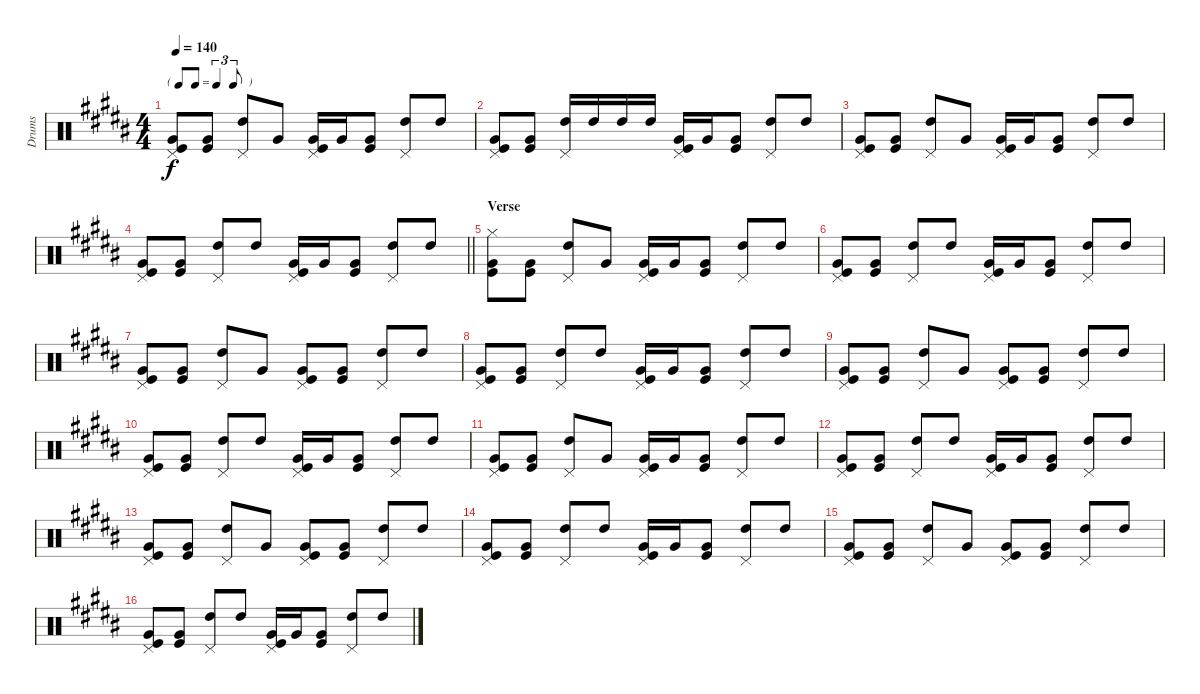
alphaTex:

\track ("Drums" "Drums") {instrument percussion}
\staff {score}
\articulation defaults
\ts (4 4)
\tf triplet8th
\tempo 140
\clef neutral
\ks b
("Kick (hit)" "Very Low Tom (hit)" "Pedal Hi-Hat (hit)").8{dy f} ("Kick (hit)" "Very Low Tom (hit)").8 ("High Tom (hit)" "Pedal Hi-Hat (hit)").8 "Very Low Tom (hit)".8 ("Very Low Tom (hit)" "Kick (hit)" "Pedal Hi-Hat (hit)").16 "Very Low Tom (hit)".16 ("Very Low Tom (hit)" "Kick (hit)").8 ("High Tom (hit)" "Pedal Hi-Hat (hit)").8 "High Tom (hit)".8 |
("Kick (hit)" "Very Low Tom (hit)" "Pedal Hi-Hat (hit)").8 ("Kick (hit)" "Very Low Tom (hit)").8 ("High Tom (hit)" "Pedal Hi-Hat (hit)").16 "High Tom (hit)".16 "High Tom (hit)".16 "High Tom (hit)".16 ("Very Low Tom (hit)" "Kick (hit)" "Pedal Hi-Hat (hit)").16 "Very Low Tom (hit)".16 ("Very Low Tom (hit)" "Kick (hit)").8 ("High Tom (hit)" "Pedal Hi-Hat (hit)").8 "High Tom (hit)".8 |
("Kick (hit)" "Very Low Tom (hit)" "Pedal Hi-Hat (hit)").8 ("Kick (hit)" "Very Low Tom (hit)").8 ("High Tom (hit)" "Pedal Hi-Hat (hit)").8 "Very Low Tom (hit)".8 ("Very Low Tom (hit)" "Kick (hit)" "Pedal Hi-Hat (hit)").16 "Very Low Tom (hit)".16 ("Very Low Tom (hit)" "Kick (hit)").8 ("High Tom (hit)" "Pedal Hi-Hat (hit)").8 "High Tom (hit)".8 |
\barLineRight lightlight
("Kick (hit)" "Very Low Tom (hit)" "Pedal Hi-Hat (hit)").8 ("Kick (hit)" "Very Low Tom (hit)").8 ("High Tom (hit)" "Pedal Hi-Hat (hit)").8 "High Tom (hit)".8 ("Very Low Tom (hit)" "Kick (hit)" "Pedal Hi-Hat (hit)").16 "Very Low Tom (hit)".16 ("Very Low Tom (hit)" "Kick (hit)").8 ("High Tom (hit)" "Pedal Hi-Hat (hit)").8 "High Tom (hit)".8 |
\section ("" "Verse")
("Kick (hit)" "Very Low Tom (hit)" "Hi-Hat (closed)").8 ("Kick (hit)" "Very Low Tom (hit)").8 ("High Tom (hit)" "Pedal Hi-Hat (hit)").8 "Very Low Tom (hit)".8 ("Very Low Tom (hit)" "Kick (hit)" "Pedal Hi-Hat (hit)").16 "Very Low Tom (hit)".16 ("Very Low Tom (hit)" "Kick (hit)").8 ("High Tom (hit)" "Pedal Hi-Hat (hit)").8 "High Tom (hit)".8 |
("Kick (hit)" "Very Low Tom (hit)" "Pedal Hi-Hat (hit)").8 ("Kick (hit)" "Very Low Tom (hit)").8 ("High Tom (hit)" "Pedal Hi-Hat (hit)").8 "High Tom (hit)".8 ("Very Low Tom (hit)" "Kick (hit)" "Pedal Hi-Hat (hit)").16 "Very Low Tom (hit)".16 ("Very Low Tom (hit)" "Kick (hit)").8 ("High Tom (hit)" "Pedal Hi-Hat (hit)").8 "High Tom (hit)".8 |
("Kick (hit)" "Very Low Tom (hit)" "Pedal Hi-Hat (hit)").8 ("Kick (hit)" "Very Low Tom (hit)").8 ("High Tom (hit)" "Pedal Hi-Hat (hit)").8 "Very Low Tom (hit)".8 ("Very Low Tom (hit)" "Kick (hit)" "Pedal Hi-Hat (hit)").8 ("Very Low Tom (hit)" "Kick (hit)").8 ("High Tom (hit)" "Pedal Hi-Hat (hit)").8 "High Tom (hit)".8 |
("Kick (hit)" "Very Low Tom (hit)" "Pedal Hi-Hat (hit)").8 ("Kick (hit)" "Very Low Tom (hit)").8 ("High Tom (hit)" "Pedal Hi-Hat (hit)").8 "High Tom (hit)".8 ("Very Low Tom (hit)" "Kick (hit)" "Pedal Hi-Hat (hit)").16 "Very Low Tom (hit)".16 ("Very Low Tom (hit)" "Kick (hit)").8 ("High Tom (hit)" "Pedal Hi-Hat (hit)").8 "High Tom (hit)".8 |
("Kick (hit)" "Very Low Tom (hit)" "Pedal Hi-Hat (hit)").8 ("Kick (hit)" "Very Low Tom (hit)").8 ("High Tom (hit)" "Pedal Hi-Hat (hit)").8 "Very Low Tom (hit)".8 ("Very Low Tom (hit)" "Kick (hit)" "Pedal Hi-Hat (hit)").8 ("Very Low Tom (hit)" "Kick (hit)").8 ("High Tom (hit)" "Pedal Hi-Hat (hit)").8 "High Tom (hit)".8 |
("Kick (hit)" "Very Low Tom (hit)" "Pedal Hi-Hat (hit)").8 ("Kick (hit)" "Very Low Tom (hit)").8 ("High Tom (hit)" "Pedal Hi-Hat (hit)").8 "High Tom (hit)".8 ("Very Low Tom (hit)" "Kick (hit)" "Pedal Hi-Hat (hit)").16 "Very Low Tom (hit)".16 ("Very Low Tom (hit)" "Kick (hit)").8 ("High Tom (hit)" "Pedal Hi-Hat (hit)").8 "High Tom (hit)".8 |
("Kick (hit)" "Very Low Tom (hit)" "Pedal Hi-Hat (hit)").8 ("Kick (hit)" "Very Low Tom (hit)").8 ("High Tom (hit)" "Pedal Hi-Hat (hit)").8 "Very Low Tom (hit)".8 ("Very Low Tom (hit)" "Kick (hit)" "Pedal Hi-Hat (hit)").16 "Very Low Tom (hit)".16 ("Very Low Tom (hit)" "Kick (hit)").8 ("High Tom (hit)" "Pedal Hi-Hat (hit)").8 "High Tom (hit)".8 |
("Kick (hit)" "Very Low Tom (hit)" "Pedal Hi-Hat (hit)").8 ("Kick (hit)" "Very Low Tom (hit)").8 ("High Tom (hit)" "Pedal Hi-Hat (hit)").8 "High Tom (hit)".8 ("Very Low Tom (hit)" "Kick (hit)" "Pedal Hi-Hat (hit)").16 "Very Low Tom (hit)".16 ("Very Low Tom (hit)" "Kick (hit)").8 ("High Tom (hit)" "Pedal Hi-Hat (hit)").8 "High Tom (hit)".8 |
("Kick (hit)" "Very Low Tom (hit)" "Pedal Hi-Hat (hit)").8 ("Kick (hit)" "Very Low Tom (hit)").8 ("High Tom (hit)" "Pedal Hi-Hat (hit)").8 "Very Low Tom (hit)".8 ("Very Low Tom (hit)" "Kick (hit)" "Pedal Hi-Hat (hit)").8 ("Very Low Tom (hit)" "Kick (hit)").8 ("High Tom (hit)" "Pedal Hi-Hat (hit)").8 "High Tom (hit)".8 |
("Kick (hit)" "Very Low Tom (hit)" "Pedal Hi-Hat (hit)").8 ("Kick (hit)" "Very Low Tom (hit)").8 ("High Tom (hit)" "Pedal Hi-Hat (hit)").8 "High Tom (hit)".8 ("Very Low Tom (hit)" "Kick (hit)" "Pedal Hi-Hat (hit)").16 "Very Low Tom (hit)".16 ("Very Low Tom (hit)" "Kick (hit)").8 ("High Tom (hit)" "Pedal Hi-Hat (hit)").8 "High Tom (hit)".8 |
("Kick (hit)" "Very Low Tom (hit)" "Pedal Hi-Hat (hit)").8 ("Kick (hit)" "Very Low Tom (hit)").8 ("High Tom (hit)" "Pedal Hi-Hat (hit)").8 "Very Low Tom (hit)".8 ("Very Low Tom (hit)" "Kick (hit)" "Pedal Hi-Hat (hit)").8 ("Very Low Tom (hit)" "Kick (hit)").8 ("High Tom (hit)" "Pedal Hi-Hat (hit)").8 "High Tom (hit)".8 |
("Kick (hit)" "Very Low Tom (hit)" "Pedal Hi-Hat (hit)").8 ("Kick (hit)" "Very Low Tom (hit)").8 ("High Tom (hit)" "Pedal Hi-Hat (hit)").8 "High Tom (hit)".8 ("Very Low Tom (hit)" "Kick (hit)" "Pedal Hi-Hat (hit)").16 "Very Low Tom (hit)".16 ("Very Low Tom (hit)" "Kick (hit)").8 ("High Tom (hit)" "Pedal Hi-Hat (hit)").8 "High Tom (hit)".8
